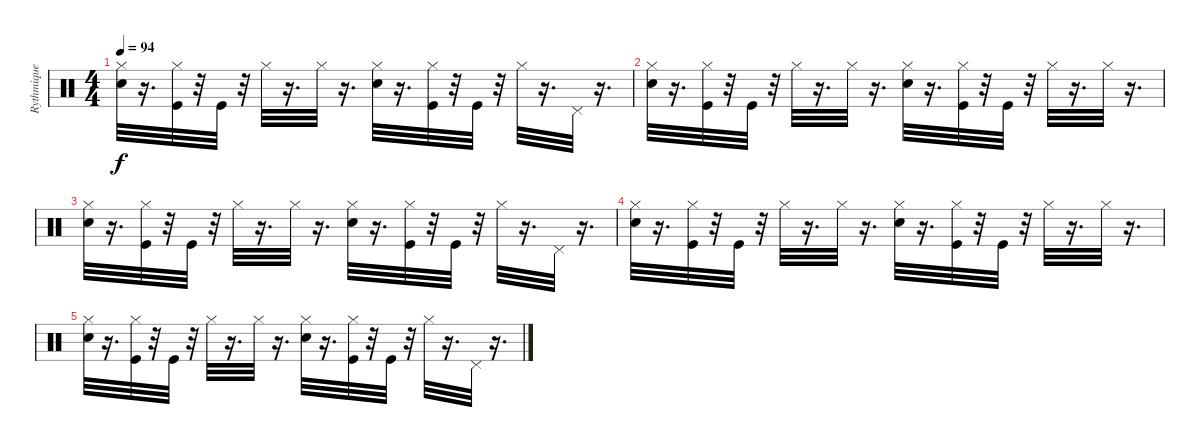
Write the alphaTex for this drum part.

\track ("Rythmique" "Rythmique") {instrument percussion}
\staff {score}
\articulation defaults
\ts (4 4)
\tempo 94
\clef neutral
\ks c
("Hi-Hat (closed)" "Electric Snare (hit)").32{dy f} r.16{d} ("Hi-Hat (closed)" "Kick (hit)").32 r.32 "Kick (hit)".32 r.32 "Hi-Hat (closed)".32 r.16{d} "Hi-Hat (closed)".32 r.16{d} ("Hi-Hat (closed)" "Electric Snare (hit)").32 r.16{d} ("Hi-Hat (closed)" "Kick (hit)").32 r.32 "Kick (hit)".32 r.32 "Hi-Hat (closed)".32 r.16{d} "Pedal Hi-Hat (hit)".32 r.16{d} |
("Hi-Hat (closed)" "Electric Snare (hit)").32 r.16{d} ("Hi-Hat (closed)" "Kick (hit)").32 r.32 "Kick (hit)".32 r.32 "Hi-Hat (closed)".32 r.16{d} "Hi-Hat (closed)".32 r.16{d} ("Hi-Hat (closed)" "Electric Snare (hit)").32 r.16{d} ("Hi-Hat (closed)" "Kick (hit)").32 r.32 "Kick (hit)".32 r.32 "Hi-Hat (closed)".32 r.16{d} "Hi-Hat (closed)".32 r.16{d} |
("Hi-Hat (closed)" "Electric Snare (hit)").32 r.16{d} ("Hi-Hat (closed)" "Kick (hit)").32 r.32 "Kick (hit)".32 r.32 "Hi-Hat (closed)".32 r.16{d} "Hi-Hat (closed)".32 r.16{d} ("Hi-Hat (closed)" "Electric Snare (hit)").32 r.16{d} ("Hi-Hat (closed)" "Kick (hit)").32 r.32 "Kick (hit)".32 r.32 "Hi-Hat (closed)".32 r.16{d} "Pedal Hi-Hat (hit)".32 r.16{d} |
("Hi-Hat (closed)" "Electric Snare (hit)").32 r.16{d} ("Hi-Hat (closed)" "Kick (hit)").32 r.32 "Kick (hit)".32 r.32 "Hi-Hat (closed)".32 r.16{d} "Hi-Hat (closed)".32 r.16{d} ("Hi-Hat (closed)" "Electric Snare (hit)").32 r.16{d} ("Hi-Hat (closed)" "Kick (hit)").32 r.32 "Kick (hit)".32 r.32 "Hi-Hat (closed)".32 r.16{d} "Hi-Hat (closed)".32 r.16{d} |
("Hi-Hat (closed)" "Electric Snare (hit)").32 r.16{d} ("Hi-Hat (closed)" "Kick (hit)").32 r.32 "Kick (hit)".32 r.32 "Hi-Hat (closed)".32 r.16{d} "Hi-Hat (closed)".32 r.16{d} ("Hi-Hat (closed)" "Electric Snare (hit)").32 r.16{d} ("Hi-Hat (closed)" "Kick (hit)").32 r.32 "Kick (hit)".32 r.32 "Hi-Hat (closed)".32 r.16{d} "Pedal Hi-Hat (hit)".32 r.16{d}
